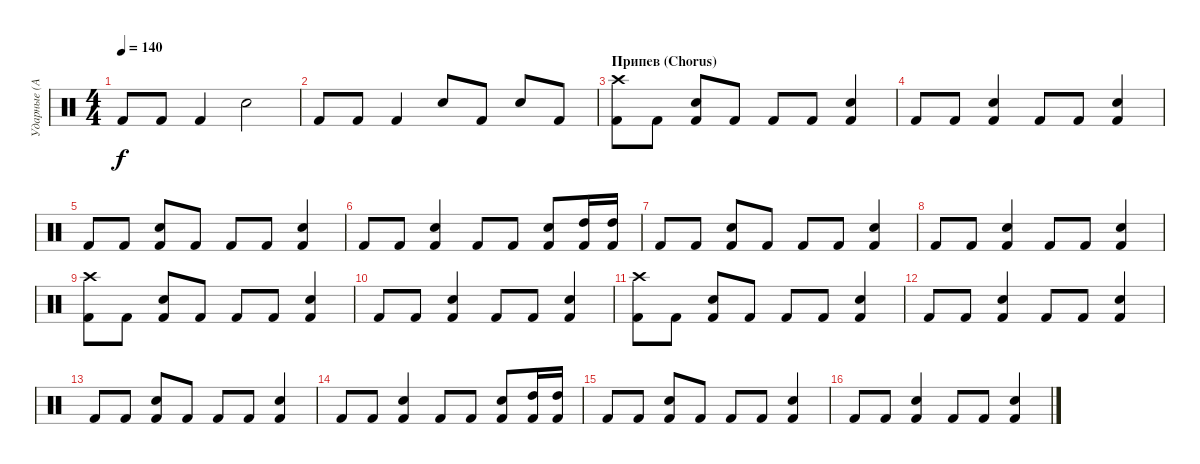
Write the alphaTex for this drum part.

\track ("Ударные (Алексей Барзилович)" "Ударные (А") {instrument percussion}
\staff {score}
\articulation defaults
\ts (4 4)
\tempo 140
\clef neutral
\ks c "Kick (hit) 2".8{dy f} "Kick (hit) 2".8 "Kick (hit) 2".4 "Electric Snare (hit)".2
|
"Kick (hit) 2".8 "Kick (hit) 2".8 "Kick (hit) 2".4 "Electric Snare (hit)".8 "Kick (hit) 2".8 "Electric Snare (hit)".8 "Kick (hit) 2".8 |
\section ("" "Припев (Chorus)")
("Crash high (hit)" "Kick (hit) 2").8 "Kick (hit) 2".8 ("Electric Snare (hit)" "Kick (hit) 2").8 "Kick (hit) 2".8 "Kick (hit) 2".8 "Kick (hit) 2".8 ("Electric Snare (hit)" "Kick (hit) 2").4 |
"Kick (hit) 2".8 "Kick (hit) 2".8 ("Electric Snare (hit)" "Kick (hit) 2").4 "Kick (hit) 2".8 "Kick (hit) 2".8 ("Electric Snare (hit)" "Kick (hit) 2").4 |
"Kick (hit) 2".8 "Kick (hit) 2".8 ("Electric Snare (hit)" "Kick (hit) 2").8 "Kick (hit) 2".8 "Kick (hit) 2".8 "Kick (hit) 2".8 ("Electric Snare (hit)" "Kick (hit) 2").4 |
"Kick (hit) 2".8 "Kick (hit) 2".8 ("Electric Snare (hit)" "Kick (hit) 2").4 "Kick (hit) 2".8 "Kick (hit) 2".8 ("Electric Snare (hit)" "Kick (hit) 2").8 ("High Tom (hit)" "Kick (hit) 2").16 ("High Tom (hit)" "Kick (hit) 2").16 |
"Kick (hit) 2".8 "Kick (hit) 2".8 ("Electric Snare (hit)" "Kick (hit) 2").8 "Kick (hit) 2".8 "Kick (hit) 2".8 "Kick (hit) 2".8 ("Electric Snare (hit)" "Kick (hit) 2").4 |
"Kick (hit) 2".8 "Kick (hit) 2".8 ("Electric Snare (hit)" "Kick (hit) 2").4 "Kick (hit) 2".8 "Kick (hit) 2".8 ("Electric Snare (hit)" "Kick (hit) 2").4 |
("Crash high (hit)" "Kick (hit) 2").8 "Kick (hit) 2".8 ("Electric Snare (hit)" "Kick (hit) 2").8 "Kick (hit) 2".8 "Kick (hit) 2".8 "Kick (hit) 2".8 ("Electric Snare (hit)" "Kick (hit) 2").4 |
"Kick (hit) 2".8 "Kick (hit) 2".8 ("Electric Snare (hit)" "Kick (hit) 2").4 "Kick (hit) 2".8 "Kick (hit) 2".8 ("Electric Snare (hit)" "Kick (hit) 2").4 |
("Crash high (hit)" "Kick (hit) 2").8 "Kick (hit) 2".8 ("Electric Snare (hit)" "Kick (hit) 2").8 "Kick (hit) 2".8 "Kick (hit) 2".8 "Kick (hit) 2".8 ("Electric Snare (hit)" "Kick (hit) 2").4 |
"Kick (hit) 2".8 "Kick (hit) 2".8 ("Electric Snare (hit)" "Kick (hit) 2").4 "Kick (hit) 2".8 "Kick (hit) 2".8 ("Electric Snare (hit)" "Kick (hit) 2").4 |
"Kick (hit) 2".8 "Kick (hit) 2".8 ("Electric Snare (hit)" "Kick (hit) 2").8 "Kick (hit) 2".8 "Kick (hit) 2".8 "Kick (hit) 2".8 ("Electric Snare (hit)" "Kick (hit) 2").4 |
"Kick (hit) 2".8 "Kick (hit) 2".8 ("Electric Snare (hit)" "Kick (hit) 2").4 "Kick (hit) 2".8 "Kick (hit) 2".8 ("Electric Snare (hit)" "Kick (hit) 2").8 ("High Tom (hit)" "Kick (hit) 2").16 ("High Tom (hit)" "Kick (hit) 2").16 |
"Kick (hit) 2".8 "Kick (hit) 2".8 ("Electric Snare (hit)" "Kick (hit) 2").8 "Kick (hit) 2".8 "Kick (hit) 2".8 "Kick (hit) 2".8 ("Electric Snare (hit)" "Kick (hit) 2").4 |
"Kick (hit) 2".8 "Kick (hit) 2".8 ("Electric Snare (hit)" "Kick (hit) 2").4 "Kick (hit) 2".8 "Kick (hit) 2".8 ("Electric Snare (hit)" "Kick (hit) 2").4
